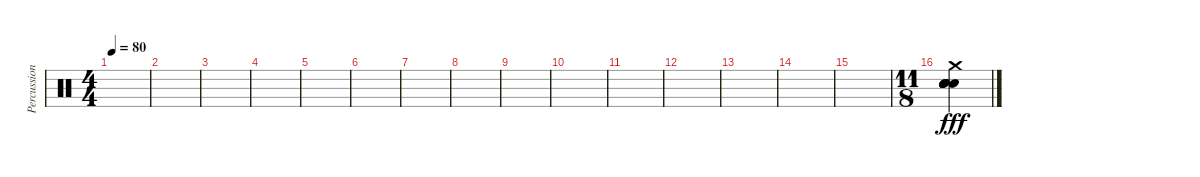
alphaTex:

\track ("Percussions" "Percussion") {instrument percussion}
\staff {score}
\articulation defaults
\ts (4 4)
\tempo 80
\clef neutral
\ks c
|
|
|
|
|
|
|
|
|
|
|
|
|
|
|
\ts (11 8)
("Snare (hit)" "Crash medium (hit)" "Snare (hit)" "Snare (hit)" "Snare (hit)" "Snare (hit)").4{dy fff volume 16}
